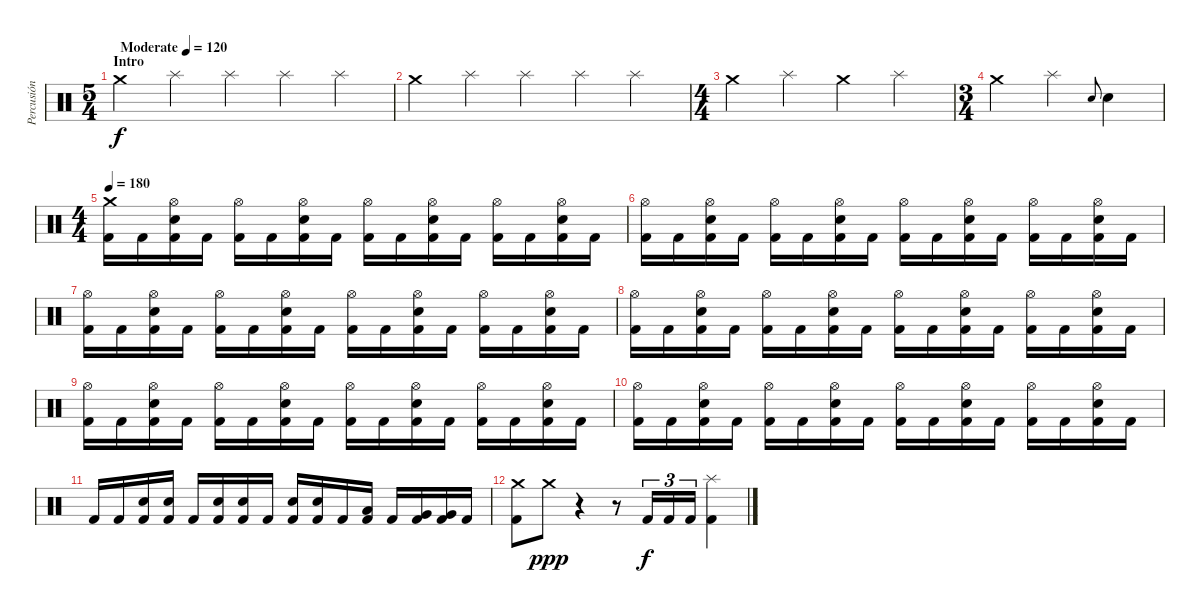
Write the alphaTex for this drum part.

\track ("Percusión" "Percusión") {instrument percussion}
\staff {score}
\articulation defaults
\ts (5 4)
\section ("" "Intro")
\tempo (120 "Moderate")
\clef neutral
\ks c "Crash medium (hit)".4{dy f} "Splash (hit)".4 "Splash (hit)".4 "Splash (hit)".4 "Splash (hit)".4
|
"Crash medium (hit)".4 "Splash (hit)".4 "Splash (hit)".4 "Splash (hit)".4 "Splash (hit)".4 |
\ts (4 4)
"Crash medium (hit)".4 "Splash (hit)".4 "Crash medium (hit)".4 "Splash (hit)".4 |
\ts (3 4)
"Crash medium (hit)".4 "Splash (hit)".4 "Electric Snare (hit)".8{gr onbeat} "Electric Snare (hit)".4 |
\ts (4 4)
\tempo 180
("Crash medium (hit)" "Kick (hit) 2").16 "Kick (hit) 2".16 ("Hi-Hat (open)" "Electric Snare (hit)" "Kick (hit) 2").16 "Kick (hit) 2".16 ("Hi-Hat (open)" "Kick (hit) 2").16 "Kick (hit) 2".16 ("Hi-Hat (open)" "Electric Snare (hit)" "Kick (hit) 2").16 "Kick (hit) 2".16 ("Hi-Hat (open)" "Kick (hit) 2").16 "Kick (hit) 2".16 ("Hi-Hat (open)" "Electric Snare (hit)" "Kick (hit) 2").16 "Kick (hit) 2".16 ("Hi-Hat (open)" "Kick (hit) 2").16 "Kick (hit) 2".16 ("Hi-Hat (open)" "Electric Snare (hit)" "Kick (hit) 2").16 "Kick (hit) 2".16 |
("Hi-Hat (open)" "Kick (hit) 2").16 "Kick (hit) 2".16 ("Hi-Hat (open)" "Electric Snare (hit)" "Kick (hit) 2").16 "Kick (hit) 2".16 ("Hi-Hat (open)" "Kick (hit) 2").16 "Kick (hit) 2".16 ("Hi-Hat (open)" "Electric Snare (hit)" "Kick (hit) 2").16 "Kick (hit) 2".16 ("Hi-Hat (open)" "Kick (hit) 2").16 "Kick (hit) 2".16 ("Hi-Hat (open)" "Electric Snare (hit)" "Kick (hit) 2").16 "Kick (hit) 2".16 ("Hi-Hat (open)" "Kick (hit) 2").16 "Kick (hit) 2".16 ("Hi-Hat (open)" "Electric Snare (hit)" "Kick (hit) 2").16 "Kick (hit) 2".16 |
("Hi-Hat (open)" "Kick (hit) 2").16 "Kick (hit) 2".16 ("Hi-Hat (open)" "Electric Snare (hit)" "Kick (hit) 2").16 "Kick (hit) 2".16 ("Hi-Hat (open)" "Kick (hit) 2").16 "Kick (hit) 2".16 ("Hi-Hat (open)" "Electric Snare (hit)" "Kick (hit) 2").16 "Kick (hit) 2".16 ("Hi-Hat (open)" "Kick (hit) 2").16 "Kick (hit) 2".16 ("Hi-Hat (open)" "Electric Snare (hit)" "Kick (hit) 2").16 "Kick (hit) 2".16 ("Hi-Hat (open)" "Kick (hit) 2").16 "Kick (hit) 2".16 ("Hi-Hat (open)" "Electric Snare (hit)" "Kick (hit) 2").16 "Kick (hit) 2".16 |
("Hi-Hat (open)" "Kick (hit) 2").16 "Kick (hit) 2".16 ("Hi-Hat (open)" "Electric Snare (hit)" "Kick (hit) 2").16 "Kick (hit) 2".16 ("Hi-Hat (open)" "Kick (hit) 2").16 "Kick (hit) 2".16 ("Hi-Hat (open)" "Electric Snare (hit)" "Kick (hit) 2").16 "Kick (hit) 2".16 ("Hi-Hat (open)" "Kick (hit) 2").16 "Kick (hit) 2".16 ("Hi-Hat (open)" "Electric Snare (hit)" "Kick (hit) 2").16 "Kick (hit) 2".16 ("Hi-Hat (open)" "Kick (hit) 2").16 "Kick (hit) 2".16 ("Hi-Hat (open)" "Electric Snare (hit)" "Kick (hit) 2").16 "Kick (hit) 2".16 |
("Hi-Hat (open)" "Kick (hit) 2").16 "Kick (hit) 2".16 ("Hi-Hat (open)" "Electric Snare (hit)" "Kick (hit) 2").16 "Kick (hit) 2".16 ("Hi-Hat (open)" "Kick (hit) 2").16 "Kick (hit) 2".16 ("Hi-Hat (open)" "Electric Snare (hit)" "Kick (hit) 2").16 "Kick (hit) 2".16 ("Hi-Hat (open)" "Kick (hit) 2").16 "Kick (hit) 2".16 ("Hi-Hat (open)" "Electric Snare (hit)" "Kick (hit) 2").16 "Kick (hit) 2".16 ("Hi-Hat (open)" "Kick (hit) 2").16 "Kick (hit) 2".16 ("Hi-Hat (open)" "Electric Snare (hit)" "Kick (hit) 2").16 "Kick (hit) 2".16 |
("Hi-Hat (open)" "Kick (hit) 2").16 "Kick (hit) 2".16 ("Hi-Hat (open)" "Electric Snare (hit)" "Kick (hit) 2").16 "Kick (hit) 2".16 ("Hi-Hat (open)" "Kick (hit) 2").16 "Kick (hit) 2".16 ("Hi-Hat (open)" "Electric Snare (hit)" "Kick (hit) 2").16 "Kick (hit) 2".16 ("Hi-Hat (open)" "Kick (hit) 2").16 "Kick (hit) 2".16 ("Hi-Hat (open)" "Electric Snare (hit)" "Kick (hit) 2").16 "Kick (hit) 2".16 ("Hi-Hat (open)" "Kick (hit) 2").16 "Kick (hit) 2".16 ("Hi-Hat (open)" "Electric Snare (hit)" "Kick (hit) 2").16 "Kick (hit) 2".16 |
"Kick (hit) 2".16 "Kick (hit) 2".16 ("Electric Snare (hit)" "Kick (hit) 2").16 ("Electric Snare (hit)" "Kick (hit) 2").16 "Kick (hit) 2".16 ("Electric Snare (hit)" "Kick (hit) 2").16 ("Electric Snare (hit)" "Kick (hit) 2").16 "Kick (hit) 2".16 ("Electric Snare (hit)" "Kick (hit) 2").16 ("Electric Snare (hit)" "Kick (hit) 2").16 "Kick (hit) 2".16 ("Low Tom (hit)" "Kick (hit) 2").16 "Kick (hit) 2".16 ("Very Low Tom (hit)" "Kick (hit) 2").16 ("Very Low Tom (hit)" "Kick (hit) 2").16 "Kick (hit) 2".16 |
("Crash medium (hit)" "Kick (hit) 2").8 "Crash medium (hit)".8{dy ppp} r.4 r.8 "Kick (hit) 2".16{tu (3 2) dy f} "Kick (hit) 2".16{tu (3 2)} "Kick (hit) 2".16{tu (3 2)} ("Splash (hit)" "Kick (hit) 2").4
